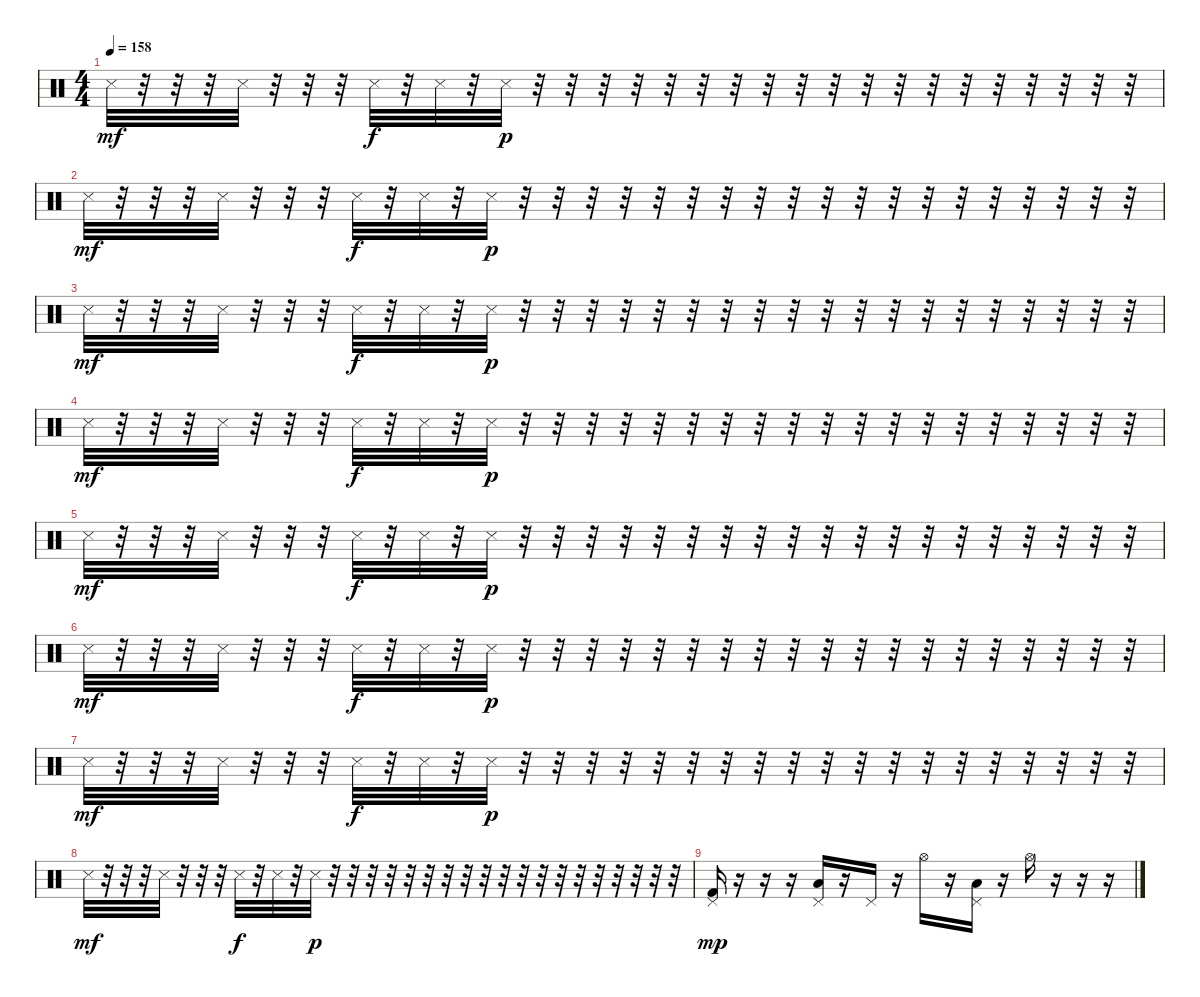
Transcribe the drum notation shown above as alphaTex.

\track ("   " "   ") {instrument percussion}
\staff
\articulation defaults
\ts (4 4)
\tempo 158
\clef neutral
\ks c "Snare (side stick) 3".32{dy mf}
r.32 r.32 r.32 "Snare (side stick) 3".32 r.32 r.32 r.32 "Snare (side stick) 3".32{dy f} r.32 "Snare (side stick) 3".32 r.32 "Snare (side stick) 3".32{dy p} r.32 r.32 r.32 r.32 r.32 r.32 r.32 r.32 r.32 r.32 r.32 r.32 r.32 r.32 r.32 r.32 r.32 r.32 r.32 |
"Snare (side stick) 3".32{dy mf} r.32 r.32 r.32 "Snare (side stick) 3".32 r.32 r.32 r.32 "Snare (side stick) 3".32{dy f} r.32 "Snare (side stick) 3".32 r.32 "Snare (side stick) 3".32{dy p} r.32 r.32 r.32 r.32 r.32 r.32 r.32 r.32 r.32 r.32 r.32 r.32 r.32 r.32 r.32 r.32 r.32 r.32 r.32 |
"Snare (side stick) 3".32{dy mf} r.32 r.32 r.32 "Snare (side stick) 3".32 r.32 r.32 r.32 "Snare (side stick) 3".32{dy f} r.32 "Snare (side stick) 3".32 r.32 "Snare (side stick) 3".32{dy p} r.32 r.32 r.32 r.32 r.32 r.32 r.32 r.32 r.32 r.32 r.32 r.32 r.32 r.32 r.32 r.32 r.32 r.32 r.32 |
"Snare (side stick) 3".32{dy mf} r.32 r.32 r.32 "Snare (side stick) 3".32 r.32 r.32 r.32 "Snare (side stick) 3".32{dy f} r.32 "Snare (side stick) 3".32 r.32 "Snare (side stick) 3".32{dy p} r.32 r.32 r.32 r.32 r.32 r.32 r.32 r.32 r.32 r.32 r.32 r.32 r.32 r.32 r.32 r.32 r.32 r.32 r.32 |
"Snare (side stick) 3".32{dy mf} r.32 r.32 r.32 "Snare (side stick) 3".32 r.32 r.32 r.32 "Snare (side stick) 3".32{dy f} r.32 "Snare (side stick) 3".32 r.32 "Snare (side stick) 3".32{dy p} r.32 r.32 r.32 r.32 r.32 r.32 r.32 r.32 r.32 r.32 r.32 r.32 r.32 r.32 r.32 r.32 r.32 r.32 r.32 |
"Snare (side stick) 3".32{dy mf} r.32 r.32 r.32 "Snare (side stick) 3".32 r.32 r.32 r.32 "Snare (side stick) 3".32{dy f} r.32 "Snare (side stick) 3".32 r.32 "Snare (side stick) 3".32{dy p} r.32 r.32 r.32 r.32 r.32 r.32 r.32 r.32 r.32 r.32 r.32 r.32 r.32 r.32 r.32 r.32 r.32 r.32 r.32 |
"Snare (side stick) 3".32{dy mf} r.32 r.32 r.32 "Snare (side stick) 3".32 r.32 r.32 r.32 "Snare (side stick) 3".32{dy f} r.32 "Snare (side stick) 3".32 r.32 "Snare (side stick) 3".32{dy p} r.32 r.32 r.32 r.32 r.32 r.32 r.32 r.32 r.32 r.32 r.32 r.32 r.32 r.32 r.32 r.32 r.32 r.32 r.32 |
"Snare (side stick) 3".32{dy mf} r.32 r.32 r.32 "Snare (side stick) 3".32 r.32 r.32 r.32 "Snare (side stick) 3".32{dy f} r.32 "Snare (side stick) 3".32 r.32 "Snare (side stick) 3".32{dy p} r.32 r.32 r.32 r.32 r.32 r.32 r.32 r.32 r.32 r.32 r.32 r.32 r.32 r.32 r.32 r.32 r.32 r.32 r.32 |
("Pedal Hi-Hat (hit)" "Kick (hit) 2").16{dy mp} r.16 r.16 r.16 ("Pedal Hi-Hat (hit)" "Low Tom (hit)").16 r.16 "Pedal Hi-Hat (hit)".16 r.16 "Hi-Hat (open)".16 r.16 ("Pedal Hi-Hat (hit)" "Low Tom (hit)").16 r.16 "Hi-Hat (open)".16 r.16 r.16 r.16
